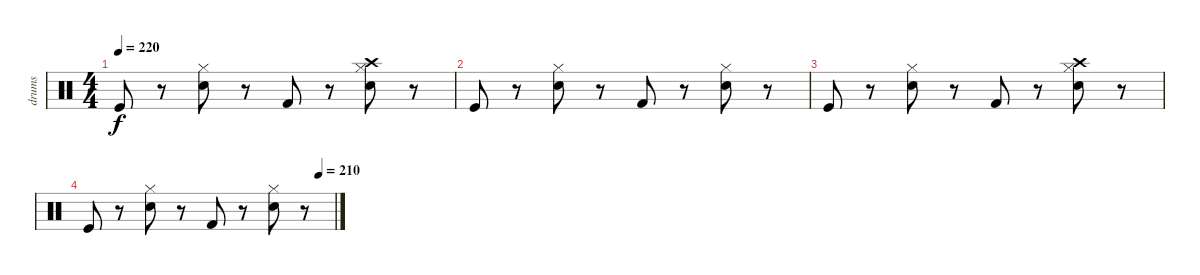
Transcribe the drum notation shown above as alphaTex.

\track ("drums" "drums") {instrument percussion}
\staff {score}
\articulation defaults
\ts (4 4)
\tempo 220
\clef neutral
\ks c "Kick (hit)".8{dy f}
r.8 ("Electric Snare (hit)" "Hi-Hat (closed)").8 r.8 "Kick (hit) 2".8 r.8 ("Electric Snare (hit)" "Hi-Hat (closed)" "Crash high (hit)").8 r.8 |
"Kick (hit)".8 r.8 ("Electric Snare (hit)" "Hi-Hat (closed)").8 r.8 "Kick (hit) 2".8 r.8 ("Electric Snare (hit)" "Hi-Hat (closed)").8 r.8 |
"Kick (hit)".8 r.8 ("Electric Snare (hit)" "Hi-Hat (closed)").8 r.8 "Kick (hit) 2".8 r.8 ("Electric Snare (hit)" "Hi-Hat (closed)" "Crash high (hit)").8 r.8 |
\tempo (210 0.9375)
"Kick (hit)".8 r.8 ("Electric Snare (hit)" "Hi-Hat (closed)").8 r.8 "Kick (hit) 2".8 r.8 ("Electric Snare (hit)" "Hi-Hat (closed)").8 r.8
